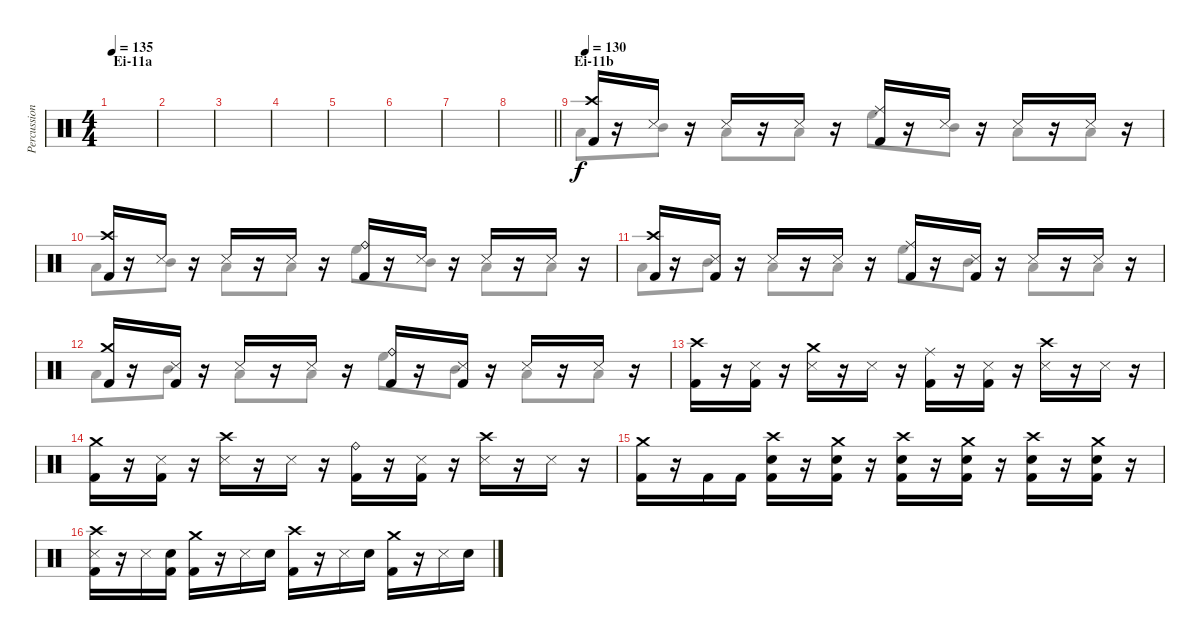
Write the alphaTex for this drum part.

\track ("Percussion" "Percussion") {instrument percussion}
\staff {score}
\articulation defaults
\voice
\ts (4 4)
\section ("" "Ei-11a")
\tempo 135
\clef neutral
\ks c
|
|
|
|
|
|
|
\barLineRight lightlight
|
\section ("" "Ei-11b")
\tempo 130
("Crash high (hit)" "Kick (hit) 2").16 r.16 "Metronome (hit)".16 r.16 "Metronome (hit)".16 r.16 "Metronome (hit)".16 r.16 ("Ride (middle)" "Kick (hit) 2").16 r.16 "Metronome (hit)".16 r.16 "Metronome (hit)".16 r.16 "Metronome (hit)".16 r.16 |
("Crash high (hit)" "Kick (hit) 2").16 r.16 "Metronome (hit)".16 r.16 "Metronome (hit)".16 r.16 "Metronome (hit)".16 r.16 ("Ride (bell)" "Kick (hit) 2").16 r.16 "Metronome (hit)".16 r.16 "Metronome (hit)".16 r.16 "Metronome (hit)".16 r.16 |
("Crash high (hit)" "Kick (hit) 2").16 r.16 ("Metronome (hit)" "Kick (hit) 2").16 r.16 "Metronome (hit)".16 r.16 "Metronome (hit)".16 r.16 ("Ride (middle)" "Kick (hit) 2").16 r.16 ("Metronome (hit)" "Kick (hit) 2").16 r.16 "Metronome (hit)".16 r.16 "Metronome (hit)".16 r.16 |
("Crash medium (hit)" "Kick (hit) 2").16 r.16 ("Metronome (hit)" "Kick (hit) 2").16 r.16 "Metronome (hit)".16 r.16 "Metronome (hit)".16 r.16 ("Ride (bell)" "Kick (hit) 2").16 r.16 ("Metronome (hit)" "Kick (hit) 2").16 r.16 "Metronome (hit)".16 r.16 "Metronome (hit)".16 r.16 |
("Crash high (hit)" "Kick (hit) 2").16 r.16 ("Metronome (hit)" "Kick (hit) 2").16 r.16 ("Crash medium (hit)" "Metronome (hit)").16 r.16 "Metronome (hit)".16 r.16 ("Ride (middle)" "Kick (hit) 2").16 r.16 ("Metronome (hit)" "Kick (hit) 2").16 r.16 ("Crash high (hit)" "Metronome (hit)").16 r.16 "Metronome (hit)".16 r.16 |
("Crash medium (hit)" "Kick (hit) 2").16 r.16 ("Metronome (hit)" "Kick (hit) 2").16 r.16 ("Crash high (hit)" "Metronome (hit)").16 r.16 "Metronome (hit)".16 r.16 ("Ride (bell)" "Kick (hit) 2").16 r.16 ("Metronome (hit)" "Kick (hit) 2").16 r.16 ("Crash high (hit)" "Metronome (hit)").16 r.16 "Metronome (hit)".16 r.16 |
("Crash medium (hit)" "Kick (hit) 2").16 r.16 "Kick (hit) 2".16 "Kick (hit) 2".16 ("Crash high (hit)" "Electric Snare (hit)" "Kick (hit) 2").16 r.16 ("Crash medium (hit)" "Electric Snare (hit)" "Kick (hit) 2").16 r.16 ("Crash high (hit)" "Electric Snare (hit)" "Kick (hit) 2").16 r.16 ("Crash medium (hit)" "Electric Snare (hit)" "Kick (hit) 2").16 r.16 ("Crash high (hit)" "Electric Snare (hit)" "Kick (hit) 2").16 r.16 ("Crash medium (hit)" "Electric Snare (hit)" "Kick (hit) 2").16 r.16 |
("Crash high (hit)" "Metronome (hit)" "Kick (hit) 2").16 r.16 "Metronome (hit)".16 ("Electric Snare (hit)" "Kick (hit) 2").16 ("Crash medium (hit)" "Kick (hit) 2").16 r.16 "Metronome (hit)".16 "Electric Snare (hit)".16 ("Crash high (hit)" "Kick (hit) 2").16 r.16 "Metronome (hit)".16 "Electric Snare (hit)".16 ("Crash medium (hit)" "Kick (hit) 2").16 r.16 "Metronome (hit)".16 "Electric Snare (hit)".16
\voice
\clef neutral
\ottava regular
\simile none
\ks c
|
|
|
|
|
|
|
\barLineRight lightlight
|
"Low Floor Tom (hit)".8 "Mid Tom (hit)".8 "Low Tom (hit)".8 "Low Floor Tom (hit)".8 "High Floor Tom (hit)".8 "Mid Tom (hit)".8 "Low Tom (hit)".8 "Low Floor Tom (hit)".8 |
"Low Floor Tom (hit)".8 "Mid Tom (hit)".8 "Low Tom (hit)".8 "Low Floor Tom (hit)".8 "High Floor Tom (hit)".8 "Mid Tom (hit)".8 "Low Tom (hit)".8 "Low Floor Tom (hit)".8 |
"Low Floor Tom (hit)".8 "Mid Tom (hit)".8 "Low Tom (hit)".8 "Low Floor Tom (hit)".8 "High Floor Tom (hit)".8 "Mid Tom (hit)".8 "Low Tom (hit)".8 "Low Floor Tom (hit)".8 |
"Low Floor Tom (hit)".8 "Mid Tom (hit)".8 "Low Tom (hit)".8 "Low Floor Tom (hit)".8 "High Floor Tom (hit)".8 "Mid Tom (hit)".8 "Low Tom (hit)".8 "Low Floor Tom (hit)".8 |
|
|
|
